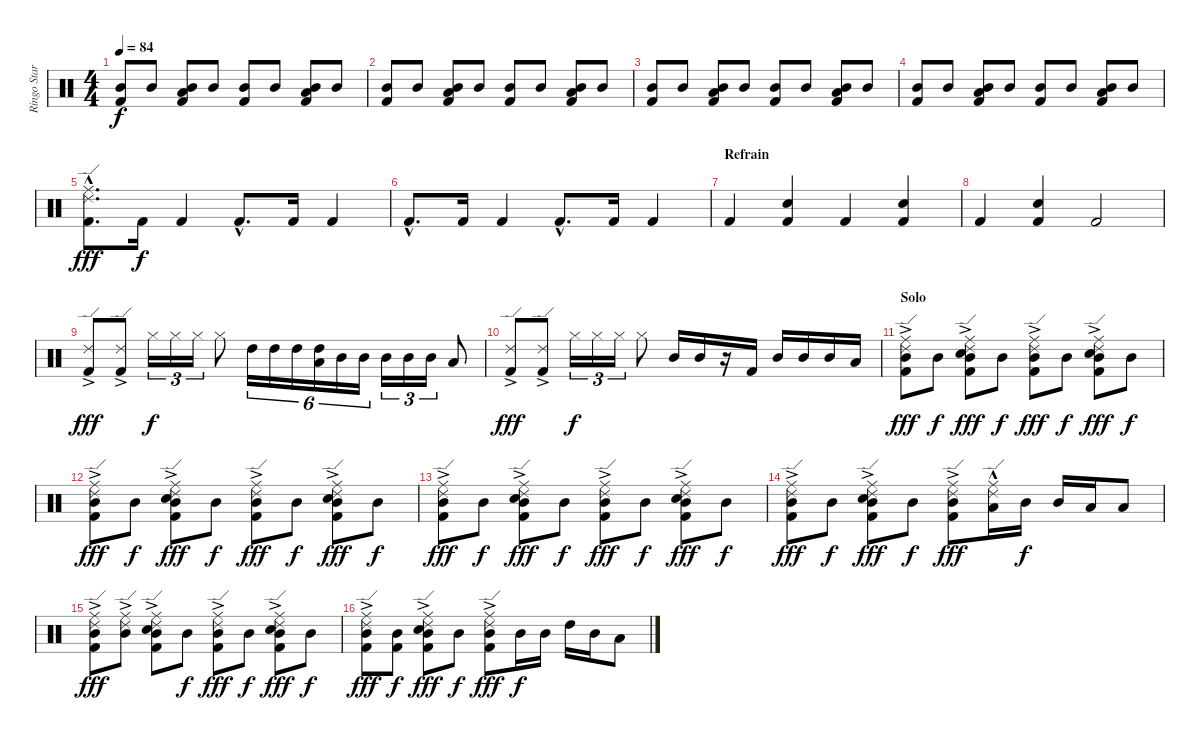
\track ("Ringo Starr (Batterie)" "Ringo Star") {instrument percussion}
\staff {score}
\articulation defaults
\ts (4 4)
\tempo 84
\clef neutral
\ks c
("Mid Tom (hit)" "Kick (hit) 2").8{dy f} "Mid Tom (hit)".8 ("Mid Tom (hit)" "Low Tom (hit)" "Kick (hit) 2").8 "Mid Tom (hit)".8 ("Mid Tom (hit)" "Kick (hit) 2").8 "Mid Tom (hit)".8 ("Mid Tom (hit)" "Low Tom (hit)" "Kick (hit) 2").8 "Mid Tom (hit)".8 |
("Mid Tom (hit)" "Kick (hit) 2").8 "Mid Tom (hit)".8 ("Mid Tom (hit)" "Low Tom (hit)" "Kick (hit) 2").8 "Mid Tom (hit)".8 ("Mid Tom (hit)" "Kick (hit) 2").8 "Mid Tom (hit)".8 ("Mid Tom (hit)" "Low Tom (hit)" "Kick (hit) 2").8 "Mid Tom (hit)".8 |
("Mid Tom (hit)" "Kick (hit) 2").8 "Mid Tom (hit)".8 ("Mid Tom (hit)" "Low Tom (hit)" "Kick (hit) 2").8 "Mid Tom (hit)".8 ("Mid Tom (hit)" "Kick (hit) 2").8 "Mid Tom (hit)".8 ("Mid Tom (hit)" "Low Tom (hit)" "Kick (hit) 2").8 "Mid Tom (hit)".8 |
("Mid Tom (hit)" "Kick (hit) 2").8 "Mid Tom (hit)".8 ("Mid Tom (hit)" "Low Tom (hit)" "Kick (hit) 2").8 "Mid Tom (hit)".8 ("Mid Tom (hit)" "Kick (hit) 2").8 "Mid Tom (hit)".8 ("Mid Tom (hit)" "Low Tom (hit)" "Kick (hit) 2").8 "Mid Tom (hit)".8 |
("Ride (edge) 2"{hac} "Ride (middle)"{hac} "Kick (hit) 2"{hac}).8{d dy fff} "Kick (hit) 2".16{dy f} "Kick (hit) 2".4 "Kick (hit) 2"{hac}.8{d} "Kick (hit) 2".16 "Kick (hit) 2".4 |
"Kick (hit) 2"{hac}.8{d} "Kick (hit) 2".16 "Kick (hit) 2".4 "Kick (hit) 2"{hac}.8{d} "Kick (hit) 2".16 "Kick (hit) 2".4 |
\section ("" "Refrain")
"Kick (hit) 2".4 ("Snare (hit) 2" "Kick (hit) 2").4 "Kick (hit) 2".4 ("Snare (hit) 2" "Kick (hit) 2").4 |
"Kick (hit) 2".4 ("Snare (hit) 2" "Kick (hit) 2").4 "Kick (hit) 2".2 |
("Ride (edge) 2"{ac} "Kick (hit) 2").8{dy fff} ("Ride (edge) 2"{ac} "Kick (hit) 2").8 "Hi-Hat (closed)".16{tu (3 2) dy f} "Hi-Hat (closed)".16{tu (3 2)} "Hi-Hat (closed)".16{tu (3 2)} "Hi-Hat (closed)".8 "High Tom (hit)".16{tu (6 4)} "High Tom (hit)".16{tu (6 4)} "High Tom (hit)".16{tu (6 4)} ("High Tom (hit)" "Low Tom (hit)").16{tu (6 4)} "Mid Tom (hit)".16{tu (6 4)} "Mid Tom (hit)".16{tu (6 4)} "Mid Tom (hit)".16{tu (3 2)} "Mid Tom (hit)".16{tu (3 2)} "Mid Tom (hit)".16{tu (3 2)} "Low Tom (hit)".8 |
("Ride (edge) 2"{ac} "Kick (hit) 2").8{dy fff} ("Ride (edge) 2"{ac} "Kick (hit) 2").8 "Hi-Hat (closed)".16{tu (3 2) dy f} "Hi-Hat (closed)".16{tu (3 2)} "Hi-Hat (closed)".16{tu (3 2)} "Hi-Hat (closed)".8 "Mid Tom (hit)".16 "Mid Tom (hit)".16 r.16 "Kick (hit) 2".16 "Mid Tom (hit)".16 "Mid Tom (hit)".16 "Mid Tom (hit)".16 "Low Tom (hit)".16 |
\section ("" "Solo")
("Ride (edge) 2"{ac} "Ride (middle)"{ac} "Mid Tom (hit)" "Kick (hit) 2").8{dy fff} "Mid Tom (hit)".8{dy f} ("Ride (edge) 2"{ac} "Ride (middle)"{ac} "Mid Tom (hit)" "Snare (hit) 2" "Kick (hit) 2").8{dy fff} "Mid Tom (hit)".8{dy f} ("Ride (edge) 2"{ac} "Ride (middle)"{ac} "Mid Tom (hit)" "Kick (hit) 2").8{dy fff} "Mid Tom (hit)".8{dy f} ("Ride (edge) 2"{ac} "Ride (middle)"{ac} "Mid Tom (hit)" "Snare (hit) 2" "Kick (hit) 2").8{dy fff} "Mid Tom (hit)".8{dy f} |
("Ride (edge) 2"{ac} "Ride (middle)"{ac} "Mid Tom (hit)" "Kick (hit) 2").8{dy fff} "Mid Tom (hit)".8{dy f} ("Ride (edge) 2"{ac} "Ride (middle)"{ac} "Mid Tom (hit)" "Snare (hit) 2" "Kick (hit) 2").8{dy fff} "Mid Tom (hit)".8{dy f} ("Ride (edge) 2"{ac} "Ride (middle)"{ac} "Mid Tom (hit)" "Kick (hit) 2").8{dy fff} "Mid Tom (hit)".8{dy f} ("Ride (edge) 2"{ac} "Ride (middle)"{ac} "Mid Tom (hit)" "Snare (hit) 2" "Kick (hit) 2").8{dy fff} "Mid Tom (hit)".8{dy f} |
("Ride (edge) 2"{ac} "Ride (middle)"{ac} "Mid Tom (hit)" "Kick (hit) 2").8{dy fff} "Mid Tom (hit)".8{dy f} ("Ride (edge) 2"{ac} "Ride (middle)"{ac} "Mid Tom (hit)" "Snare (hit) 2" "Kick (hit) 2").8{dy fff} "Mid Tom (hit)".8{dy f} ("Ride (edge) 2"{ac} "Ride (middle)"{ac} "Mid Tom (hit)" "Kick (hit) 2").8{dy fff} "Mid Tom (hit)".8{dy f} ("Ride (edge) 2"{ac} "Ride (middle)"{ac} "Mid Tom (hit)" "Snare (hit) 2" "Kick (hit) 2").8{dy fff} "Mid Tom (hit)".8{dy f} |
("Ride (edge) 2"{ac} "Ride (middle)"{ac} "Mid Tom (hit)" "Kick (hit) 2").8{dy fff} "Mid Tom (hit)".8{dy f} ("Ride (edge) 2"{ac} "Ride (middle)"{ac} "Mid Tom (hit)" "Snare (hit) 2" "Kick (hit) 2").8{dy fff} "Mid Tom (hit)".8{dy f} ("Ride (edge) 2"{ac} "Ride (middle)"{ac} "Mid Tom (hit)" "Kick (hit) 2").8{dy fff} ("Ride (edge) 2"{hac} "Ride (middle)"{hac} "Low Tom (hit)").16 "Mid Tom (hit)".16{dy f} "Mid Tom (hit)".16 "Low Tom (hit)".16 "Low Tom (hit)".8 |
("Ride (edge) 2"{ac} "Ride (middle)"{ac} "Mid Tom (hit)" "Kick (hit) 2").8{dy fff} ("Ride (edge) 2"{ac} "Ride (middle)"{ac} "Mid Tom (hit)").8 ("Ride (edge) 2"{ac} "Ride (middle)"{ac} "Mid Tom (hit)" "Snare (hit) 2" "Kick (hit) 2").8 "Mid Tom (hit)".8{dy f} ("Ride (edge) 2"{ac} "Ride (middle)"{ac} "Mid Tom (hit)" "Kick (hit) 2").8{dy fff} "Mid Tom (hit)".8{dy f} ("Ride (edge) 2"{ac} "Ride (middle)"{ac} "Mid Tom (hit)" "Snare (hit) 2" "Kick (hit) 2").8{dy fff} "Mid Tom (hit)".8{dy f} |
("Ride (edge) 2"{ac} "Ride (middle)"{ac} "Mid Tom (hit)" "Kick (hit) 2").8{dy fff} ("Mid Tom (hit)" "Kick (hit) 2").8{dy f} ("Ride (edge) 2"{ac} "Ride (middle)"{ac} "Mid Tom (hit)" "Snare (hit) 2" "Kick (hit) 2").8{dy fff} "Mid Tom (hit)".8{dy f} ("Ride (edge) 2"{ac} "Ride (middle)"{ac} "Mid Tom (hit)" "Kick (hit) 2").8{dy fff} "Mid Tom (hit)".16{dy f} "Mid Tom (hit)".16 "High Tom (hit)".16 "Mid Tom (hit)".16 "Low Tom (hit)".8
